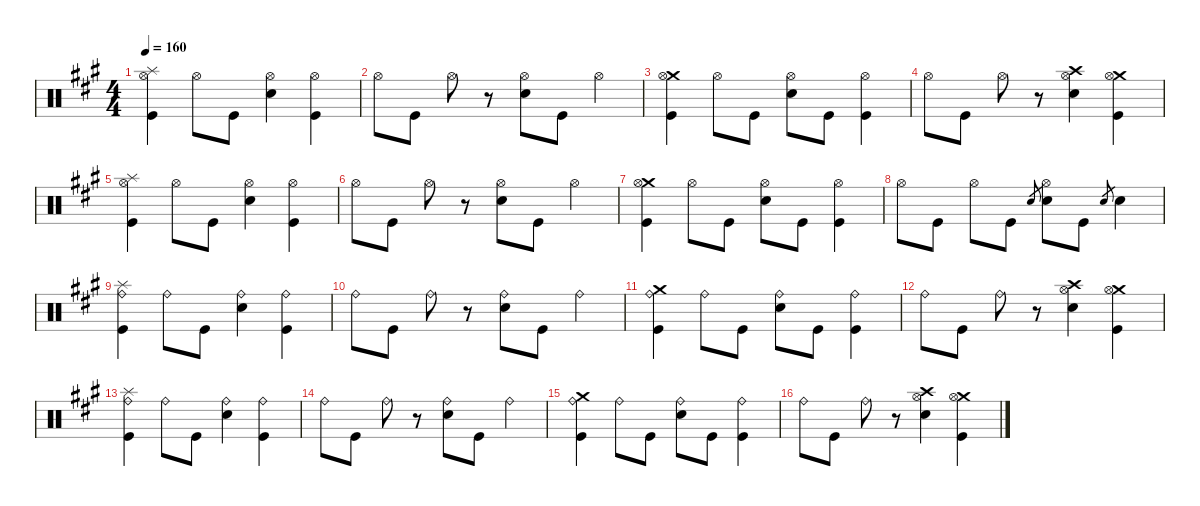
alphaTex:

\defaultSystemsLayout 4
\hideDynamics
\bracketExtendMode nobrackets
\singleTrackTrackNamePolicy hidden
\multiTrackTrackNamePolicy hidden
\firstSystemTrackNameMode fullname
\firstSystemTrackNameOrientation horizontal
\otherSystemsTrackNameOrientation horizontal
\track ("Drums" "drm.") {instrument percussion}
\staff {score}
\articulation defaults
\ts (4 4)
\tempo 160
\clef neutral
\ks f#minor
("Splash (hit)"{acc forcenatural} "Hi-Hat (open)"{acc forcenatural} "Kick (hit)"{acc forcenatural}).4{dy f beam Down} "Hi-Hat (open)"{acc forcenatural}.8{beam Down} "Kick (hit)"{acc forcenatural}.8{dy mp beam Down} ("Hi-Hat (open)"{acc forcenatural} "Snare (hit) 2"{acc forcenatural}).4{dy f beam Down} ("Hi-Hat (open)"{acc forcenatural} "Kick (hit)"{acc forcenatural}).4{beam Down} |
"Hi-Hat (open)"{acc forcenatural}.8{beam Down} "Kick (hit)"{acc forcenatural}.8{beam Down} "Hi-Hat (open)"{acc forcenatural}.8{beam Down} r.8{beam Down} ("Hi-Hat (open)"{acc forcenatural} "Snare (hit) 2"{acc forcenatural}).8{beam Down} "Kick (hit)"{acc forcenatural}.8{beam Down} "Hi-Hat (open)"{acc forcenatural}.4{beam Down} |
("Crash medium (hit)"{acc forcenatural} "Hi-Hat (open)"{acc forcenatural} "Kick (hit)"{acc forcenatural}).4{beam Down} "Hi-Hat (open)"{acc forcenatural}.8{beam Down} "Kick (hit)"{acc forcenatural}.8{dy mp beam Down} ("Hi-Hat (open)"{acc forcenatural} "Snare (hit) 2"{acc forcenatural}).8{dy f beam Down} "Kick (hit)"{acc forcenatural}.8{dy mf beam Down} ("Hi-Hat (open)"{acc forcenatural} "Kick (hit)"{acc forcenatural}).4{dy f beam Down} |
"Hi-Hat (open)"{acc forcenatural}.8{beam Down} "Kick (hit)"{acc forcenatural}.8{beam Down} "Hi-Hat (open)"{acc forcenatural}.8{beam Down} r.8{beam Down} ("Crash high (hit)"{acc forcenatural} "Hi-Hat (open)"{acc forcenatural} "Snare (hit) 2"{acc forcenatural}).4{dy mf beam Down} ("Crash medium (hit)"{acc forcenatural} "Hi-Hat (open)"{acc forcenatural} "Kick (hit)"{acc forcenatural}).4{dy f beam Down} |
("Splash (hit)"{acc forcenatural} "Hi-Hat (open)"{acc forcenatural} "Kick (hit)"{acc forcenatural}).4{beam Down} "Hi-Hat (open)"{acc forcenatural}.8{beam Down} "Kick (hit)"{acc forcenatural}.8{dy mp beam Down} ("Hi-Hat (open)"{acc forcenatural} "Snare (hit) 2"{acc forcenatural}).4{dy f beam Down} ("Hi-Hat (open)"{acc forcenatural} "Kick (hit)"{acc forcenatural}).4{beam Down} |
"Hi-Hat (open)"{acc forcenatural}.8{beam Down} "Kick (hit)"{acc forcenatural}.8{beam Down} "Hi-Hat (open)"{acc forcenatural}.8{beam Down} r.8{beam Down} ("Hi-Hat (open)"{acc forcenatural} "Snare (hit) 2"{acc forcenatural}).8{beam Down} "Kick (hit)"{acc forcenatural}.8{beam Down} "Hi-Hat (open)"{acc forcenatural}.4{beam Down} |
("Crash medium (hit)"{acc forcenatural} "Hi-Hat (open)"{acc forcenatural} "Kick (hit)"{acc forcenatural}).4{beam Down} "Hi-Hat (open)"{acc forcenatural}.8{beam Down} "Kick (hit)"{acc forcenatural}.8{dy mp beam Down} ("Hi-Hat (open)"{acc forcenatural} "Snare (hit) 2"{acc forcenatural}).8{dy f beam Down} "Kick (hit)"{acc forcenatural}.8{dy mf beam Down} ("Hi-Hat (open)"{acc forcenatural} "Kick (hit)"{acc forcenatural}).4{dy f beam Down} |
"Hi-Hat (open)"{acc forcenatural}.8{beam Down} "Kick (hit)"{acc forcenatural}.8{beam Down} "Hi-Hat (open)"{acc forcenatural}.8{beam Down} "Kick (hit)"{acc forcenatural}.8{beam Down} "Electric Snare (hit)"{acc forcenatural}.8{gr dy mf beam Up} ("Hi-Hat (open)"{acc forcenatural} "Snare (hit) 2"{acc forcenatural}).8{dy f beam Down} "Kick (hit)"{acc forcenatural}.8{beam Down} "Electric Snare (hit)"{acc forcenatural}.8{gr dy mf beam Up} "Snare (hit) 2"{acc forcenatural}.4{dy f beam Down} |
("Splash (hit)"{acc forcenatural} "Ride (bell)"{acc forcenatural} "Kick (hit)"{acc forcenatural}).4{beam Down} "Ride (bell)"{acc forcenatural}.8{beam Down} "Kick (hit)"{acc forcenatural}.8{dy mp beam Down} ("Ride (bell)"{acc forcenatural} "Snare (hit) 2"{acc forcenatural}).4{dy f beam Down} ("Ride (bell)"{acc forcenatural} "Kick (hit)"{acc forcenatural}).4{beam Down} |
"Ride (bell)"{acc forcenatural}.8{beam Down} "Kick (hit)"{acc forcenatural}.8{beam Down} "Ride (bell)"{acc forcenatural}.8{beam Down} r.8{beam Down} ("Ride (bell)"{acc forcenatural} "Snare (hit) 2"{acc forcenatural}).8{beam Down} "Kick (hit)"{acc forcenatural}.8{beam Down} "Ride (bell)"{acc forcenatural}.4{beam Down} |
("Crash medium (hit)"{acc forcenatural} "Ride (bell)"{acc forcenatural} "Kick (hit)"{acc forcenatural}).4{beam Down} "Ride (bell)"{acc forcenatural}.8{beam Down} "Kick (hit)"{acc forcenatural}.8{dy mp beam Down} ("Ride (bell)"{acc forcenatural} "Snare (hit) 2"{acc forcenatural}).8{dy f beam Down} "Kick (hit)"{acc forcenatural}.8{dy mf beam Down} ("Ride (bell)"{acc forcenatural} "Kick (hit)"{acc forcenatural}).4{dy f beam Down} |
"Ride (bell)"{acc forcenatural}.8{beam Down} "Kick (hit)"{acc forcenatural}.8{beam Down} "Ride (bell)"{acc forcenatural}.8{beam Down} r.8{beam Down} ("Crash high (hit)"{acc forcenatural} "Hi-Hat (open)"{acc forcenatural} "Snare (hit) 2"{acc forcenatural}).4{dy mf beam Down} ("Crash medium (hit)"{acc forcenatural} "Hi-Hat (open)"{acc forcenatural} "Kick (hit)"{acc forcenatural}).4{dy f beam Down} |
("Splash (hit)"{acc forcenatural} "Ride (bell)"{acc forcenatural} "Kick (hit)"{acc forcenatural}).4{beam Down} "Ride (bell)"{acc forcenatural}.8{beam Down} "Kick (hit)"{acc forcenatural}.8{dy mp beam Down} ("Ride (bell)"{acc forcenatural} "Snare (hit) 2"{acc forcenatural}).4{dy f beam Down} ("Ride (bell)"{acc forcenatural} "Kick (hit)"{acc forcenatural}).4{beam Down} |
"Ride (bell)"{acc forcenatural}.8{beam Down} "Kick (hit)"{acc forcenatural}.8{beam Down} "Ride (bell)"{acc forcenatural}.8{beam Down} r.8{beam Down} ("Ride (bell)"{acc forcenatural} "Snare (hit) 2"{acc forcenatural}).8{beam Down} "Kick (hit)"{acc forcenatural}.8{beam Down} "Ride (bell)"{acc forcenatural}.4{beam Down} |
("Crash medium (hit)"{acc forcenatural} "Ride (bell)"{acc forcenatural} "Kick (hit)"{acc forcenatural}).4{beam Down} "Ride (bell)"{acc forcenatural}.8{beam Down} "Kick (hit)"{acc forcenatural}.8{dy mp beam Down} ("Ride (bell)"{acc forcenatural} "Snare (hit) 2"{acc forcenatural}).8{dy f beam Down} "Kick (hit)"{acc forcenatural}.8{dy mf beam Down} ("Ride (bell)"{acc forcenatural} "Kick (hit)"{acc forcenatural}).4{dy f beam Down} |
"Ride (bell)"{acc forcenatural}.8{beam Down} "Kick (hit)"{acc forcenatural}.8{beam Down} "Ride (bell)"{acc forcenatural}.8{beam Down} r.8{beam Down} ("Crash high (hit)"{acc forcenatural} "Hi-Hat (open)"{acc forcenatural} "Snare (hit) 2"{acc forcenatural}).4{dy mf beam Down} ("Crash medium (hit)"{acc forcenatural} "Hi-Hat (open)"{acc forcenatural} "Kick (hit)"{acc forcenatural}).4{dy f beam Down}
